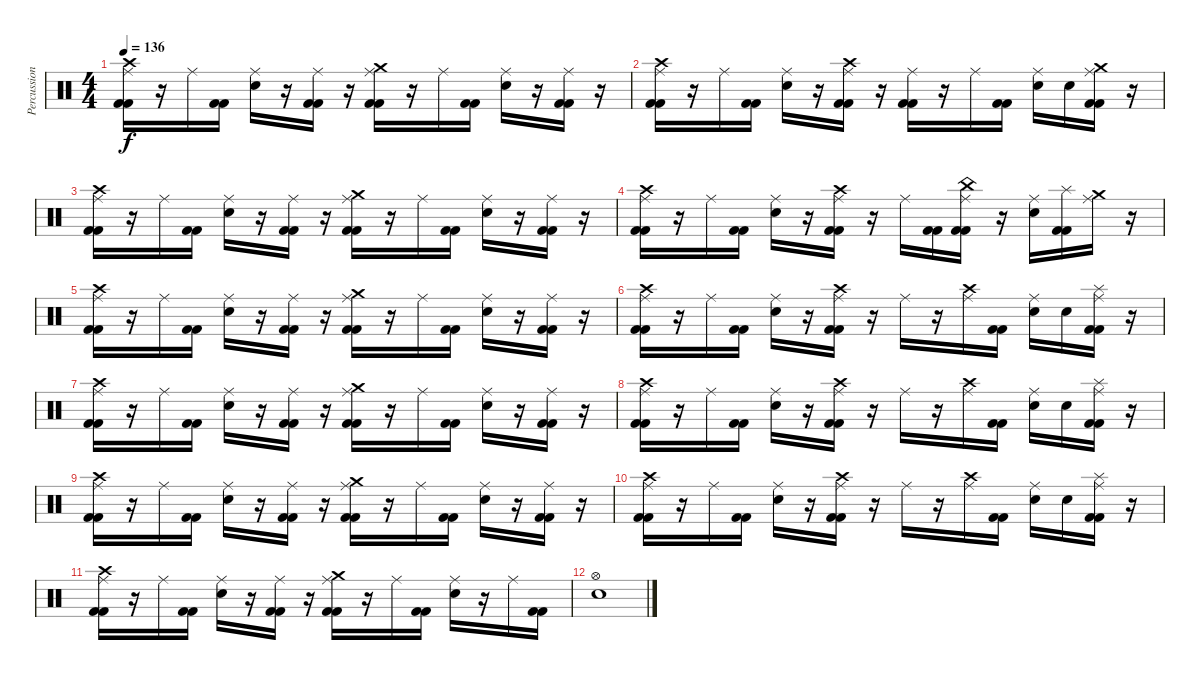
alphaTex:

\track ("Percussion" "Percussion") {instrument percussion}
\staff {score}
\articulation defaults
\ts (4 4)
\tempo 136
\clef neutral
\ks c
("Ride (middle)" "Crash high (hit)" "Kick (hit) 2" "Kick (hit) 2").16{dy f} r.16 "Ride (middle)".16 ("Kick (hit) 2" "Kick (hit) 2").16 ("Ride (middle)" "Electric Snare (hit)").16 r.16 ("Ride (middle)" "Kick (hit) 2" "Kick (hit) 2").16 r.16 ("Ride (middle)" "Crash medium (hit)" "Kick (hit) 2" "Kick (hit) 2").16 r.16 "Ride (middle)".16 ("Kick (hit) 2" "Kick (hit) 2").16 ("Ride (middle)" "Electric Snare (hit)").16 r.16 ("Ride (middle)" "Kick (hit) 2" "Kick (hit) 2").16 r.16 |
("Ride (middle)" "Crash high (hit)" "Kick (hit) 2" "Kick (hit) 2").16 r.16 "Ride (middle)".16 ("Kick (hit) 2" "Kick (hit) 2").16 ("Ride (middle)" "Electric Snare (hit)").16 r.16 ("Ride (middle)" "Crash high (hit)" "Kick (hit) 2" "Kick (hit) 2").16 r.16 ("Ride (middle)" "Kick (hit) 2" "Kick (hit) 2").16 r.16 "Ride (middle)".16 ("Kick (hit) 2" "Kick (hit) 2").16 ("Ride (middle)" "Electric Snare (hit)").16 "Electric Snare (hit)".16 ("Ride (middle)" "Crash medium (hit)" "Kick (hit) 2" "Kick (hit) 2").16 r.16 |
("Ride (middle)" "Crash high (hit)" "Kick (hit) 2" "Kick (hit) 2").16 r.16 "Ride (middle)".16 ("Kick (hit) 2" "Kick (hit) 2").16 ("Ride (middle)" "Electric Snare (hit)").16 r.16 ("Ride (middle)" "Kick (hit) 2" "Kick (hit) 2").16 r.16 ("Ride (middle)" "Crash medium (hit)" "Kick (hit) 2" "Kick (hit) 2").16 r.16 "Ride (middle)".16 ("Kick (hit) 2" "Kick (hit) 2").16 ("Ride (middle)" "Electric Snare (hit)").16 r.16 ("Ride (middle)" "Kick (hit) 2" "Kick (hit) 2").16 r.16 |
("Ride (middle)" "Crash high (hit)" "Kick (hit) 2" "Kick (hit) 2").16 r.16 "Ride (middle)".16 ("Kick (hit) 2" "Kick (hit) 2").16 ("Ride (middle)" "Electric Snare (hit)").16 r.16 ("Ride (middle)" "Crash high (hit)" "Kick (hit) 2" "Kick (hit) 2").16 r.16 "Ride (middle)".16 ("Kick (hit) 2" "Kick (hit) 2").16 ("Ride (middle)" "China (hit)" "Kick (hit) 2" "Kick (hit) 2").16 r.16 ("Ride (middle)" "Electric Snare (hit)").16 ("Splash (hit)" "Kick (hit) 2" "Kick (hit) 2").16 ("Ride (middle)" "Crash medium (hit)").16 r.16 |
("Ride (middle)" "Crash high (hit)" "Kick (hit) 2" "Kick (hit) 2").16 r.16 "Ride (middle)".16 ("Kick (hit) 2" "Kick (hit) 2").16 ("Ride (middle)" "Electric Snare (hit)").16 r.16 ("Ride (middle)" "Kick (hit) 2" "Kick (hit) 2").16 r.16 ("Ride (middle)" "Crash medium (hit)" "Kick (hit) 2" "Kick (hit) 2").16 r.16 "Ride (middle)".16 ("Kick (hit) 2" "Kick (hit) 2").16 ("Ride (middle)" "Electric Snare (hit)").16 r.16 ("Ride (middle)" "Kick (hit) 2" "Kick (hit) 2").16 r.16 |
("Ride (middle)" "Crash high (hit)" "Kick (hit) 2" "Kick (hit) 2").16 r.16 "Ride (middle)".16 ("Kick (hit) 2" "Kick (hit) 2").16 ("Ride (middle)" "Electric Snare (hit)").16 r.16 ("Ride (middle)" "Crash high (hit)" "Kick (hit) 2" "Kick (hit) 2").16 r.16 "Ride (middle)".16 r.16 ("Ride (middle)" "Crash high (hit)").16 ("Kick (hit) 2" "Kick (hit) 2").16 ("Ride (middle)" "Electric Snare (hit)").16 "Electric Snare (hit)".16 ("Ride (middle)" "Splash (hit)" "Kick (hit) 2" "Kick (hit) 2").16 r.16 |
("Ride (middle)" "Crash high (hit)" "Kick (hit) 2" "Kick (hit) 2").16 r.16 "Ride (middle)".16 ("Kick (hit) 2" "Kick (hit) 2").16 ("Ride (middle)" "Electric Snare (hit)").16 r.16 ("Ride (middle)" "Kick (hit) 2" "Kick (hit) 2").16 r.16 ("Ride (middle)" "Crash medium (hit)" "Kick (hit) 2" "Kick (hit) 2").16 r.16 "Ride (middle)".16 ("Kick (hit) 2" "Kick (hit) 2").16 ("Ride (middle)" "Electric Snare (hit)").16 r.16 ("Ride (middle)" "Kick (hit) 2" "Kick (hit) 2").16 r.16 |
("Ride (middle)" "Crash high (hit)" "Kick (hit) 2" "Kick (hit) 2").16 r.16 "Ride (middle)".16 ("Kick (hit) 2" "Kick (hit) 2").16 ("Ride (middle)" "Electric Snare (hit)").16 r.16 ("Ride (middle)" "Crash high (hit)" "Kick (hit) 2" "Kick (hit) 2").16 r.16 "Ride (middle)".16 r.16 ("Ride (middle)" "Crash high (hit)").16 ("Kick (hit) 2" "Kick (hit) 2").16 ("Ride (middle)" "Electric Snare (hit)").16 "Electric Snare (hit)".16 ("Ride (middle)" "Splash (hit)" "Kick (hit) 2" "Kick (hit) 2").16 r.16 |
("Ride (middle)" "Crash high (hit)" "Kick (hit) 2" "Kick (hit) 2").16 r.16 "Ride (middle)".16 ("Kick (hit) 2" "Kick (hit) 2").16 ("Ride (middle)" "Electric Snare (hit)").16 r.16 ("Ride (middle)" "Kick (hit) 2" "Kick (hit) 2").16 r.16 ("Ride (middle)" "Crash medium (hit)" "Kick (hit) 2" "Kick (hit) 2").16 r.16 "Ride (middle)".16 ("Kick (hit) 2" "Kick (hit) 2").16 ("Ride (middle)" "Electric Snare (hit)").16 r.16 ("Ride (middle)" "Kick (hit) 2" "Kick (hit) 2").16 r.16 |
("Ride (middle)" "Crash high (hit)" "Kick (hit) 2" "Kick (hit) 2").16 r.16 "Ride (middle)".16 ("Kick (hit) 2" "Kick (hit) 2").16 ("Ride (middle)" "Electric Snare (hit)").16 r.16 ("Ride (middle)" "Crash high (hit)" "Kick (hit) 2" "Kick (hit) 2").16 r.16 "Ride (middle)".16 r.16 ("Ride (middle)" "Crash high (hit)").16 ("Kick (hit) 2" "Kick (hit) 2").16 ("Ride (middle)" "Electric Snare (hit)").16 "Electric Snare (hit)".16 ("Ride (middle)" "Splash (hit)" "Kick (hit) 2" "Kick (hit) 2").16 r.16 |
("Ride (middle)" "Crash high (hit)" "Kick (hit) 2" "Kick (hit) 2").16 r.16 "Ride (middle)".16 ("Kick (hit) 2" "Kick (hit) 2").16 ("Ride (middle)" "Electric Snare (hit)").16 r.16 ("Ride (middle)" "Kick (hit) 2" "Kick (hit) 2").16 r.16 ("Ride (middle)" "Crash medium (hit)" "Kick (hit) 2" "Kick (hit) 2").16 r.16 "Ride (middle)".16 ("Kick (hit) 2" "Kick (hit) 2").16 ("Ride (middle)" "Electric Snare (hit)").16 r.16 "Ride (middle)".16 ("Kick (hit) 2" "Kick (hit) 2").16 |
("Hi-Hat (open)" "Electric Snare (hit)").1
